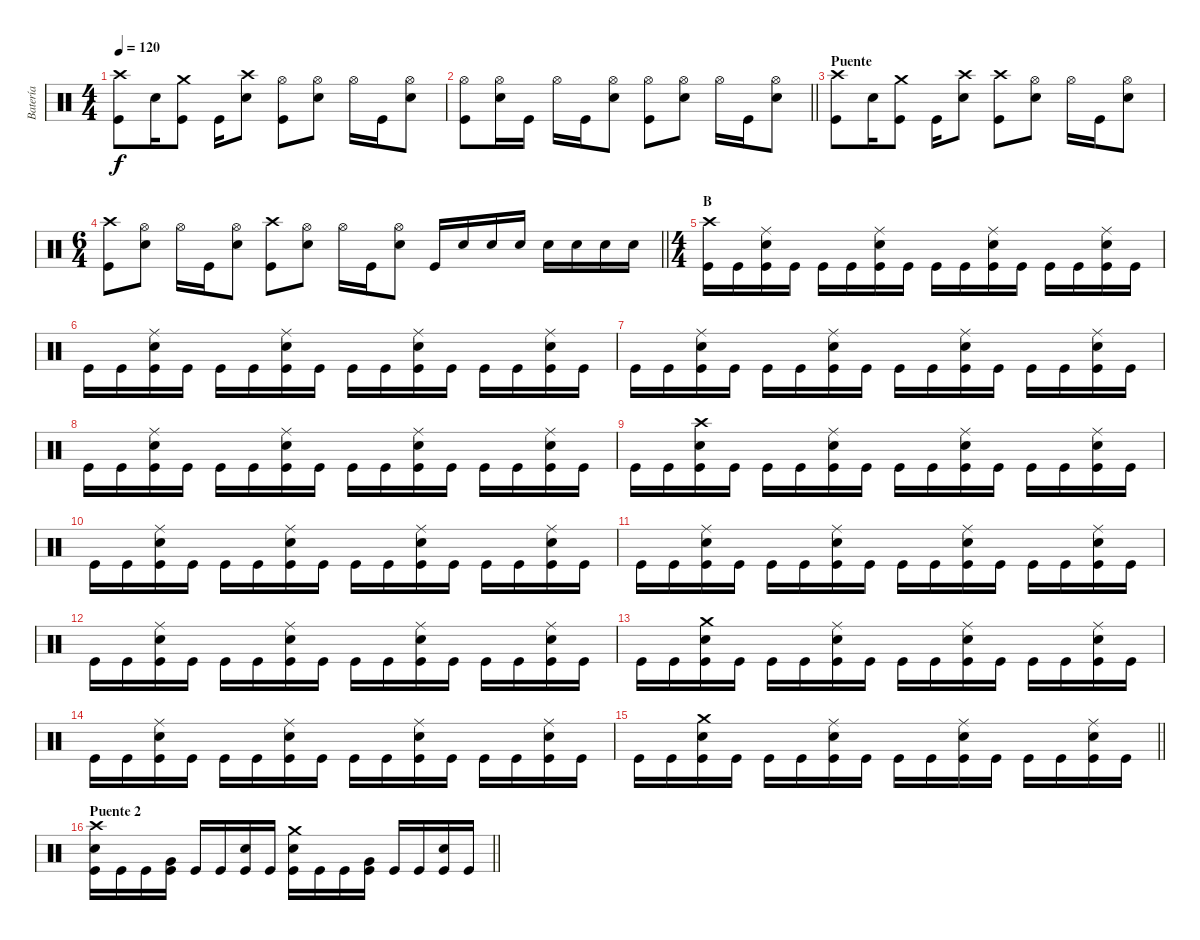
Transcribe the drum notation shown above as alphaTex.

\track ("Batería" "Batería") {instrument percussion}
\staff {score}
\articulation defaults
\ts (4 4)
\tempo 120
\clef neutral
\ks c
("Crash high (hit)" "Kick (hit)").8{dy f} "Snare (hit) 2".16 ("Crash medium (hit)" "Kick (hit)").8 "Kick (hit)".16 ("Crash high (hit)" "Snare (hit) 2").8 ("Hi-Hat (open)" "Kick (hit)").8 ("Hi-Hat (open)" "Snare (hit) 2").8 "Hi-Hat (open)".16 "Kick (hit)".16 ("Hi-Hat (open)" "Snare (hit) 2").8 |
\barLineRight lightlight
("Hi-Hat (open)" "Kick (hit)").8 ("Hi-Hat (open)" "Snare (hit) 2").16 "Kick (hit)".16 "Hi-Hat (open)".16 "Kick (hit)".16 ("Hi-Hat (open)" "Snare (hit) 2").8 ("Hi-Hat (open)" "Kick (hit)").8 ("Hi-Hat (open)" "Snare (hit) 2").8 "Hi-Hat (open)".16 "Kick (hit)".16 ("Hi-Hat (open)" "Snare (hit) 2").8 |
\section ("" "Puente")
("Crash high (hit)" "Kick (hit)").8 "Snare (hit) 2".16 ("Crash medium (hit)" "Kick (hit)").8 "Kick (hit)".16 ("Crash high (hit)" "Snare (hit) 2").8 ("Crash high (hit)" "Kick (hit)").8 ("Hi-Hat (open)" "Snare (hit) 2").8 "Hi-Hat (open)".16 "Kick (hit)".16 ("Hi-Hat (open)" "Snare (hit) 2").8 |
\ts (6 4)
\barLineRight lightlight
("Crash high (hit)" "Kick (hit)").8 ("Hi-Hat (open)" "Snare (hit) 2").8 "Hi-Hat (open)".16 "Kick (hit)".16 ("Hi-Hat (open)" "Snare (hit) 2").8 ("Crash high (hit)" "Kick (hit)").8 ("Hi-Hat (open)" "Snare (hit) 2").8 "Hi-Hat (open)".16 "Kick (hit)".16 ("Hi-Hat (open)" "Snare (hit) 2").8 "Kick (hit)".16 "Snare (hit) 2".16 "Snare (hit) 2".16 "Snare (hit) 2".16 "Snare (hit) 2".16 "Snare (hit) 2".16 "Snare (hit) 2".16 "Snare (hit) 2".16 |
\ts (4 4)
\section ("" "B")
("Crash high (hit)" "Kick (hit)").16 "Kick (hit)".16 ("Ride (middle)" "Snare (hit) 2" "Kick (hit)").16 "Kick (hit)".16 "Kick (hit)".16 "Kick (hit)".16 ("Ride (middle)" "Snare (hit) 2" "Kick (hit)").16 "Kick (hit)".16 "Kick (hit)".16 "Kick (hit)".16 ("Ride (middle)" "Snare (hit) 2" "Kick (hit)").16 "Kick (hit)".16 "Kick (hit)".16 "Kick (hit)".16 ("Ride (middle)" "Snare (hit) 2" "Kick (hit)").16 "Kick (hit)".16 |
"Kick (hit)".16 "Kick (hit)".16 ("Ride (middle)" "Snare (hit) 2" "Kick (hit)").16 "Kick (hit)".16 "Kick (hit)".16 "Kick (hit)".16 ("Ride (middle)" "Snare (hit) 2" "Kick (hit)").16 "Kick (hit)".16 "Kick (hit)".16 "Kick (hit)".16 ("Ride (middle)" "Snare (hit) 2" "Kick (hit)").16 "Kick (hit)".16 "Kick (hit)".16 "Kick (hit)".16 ("Ride (middle)" "Snare (hit) 2" "Kick (hit)").16 "Kick (hit)".16 |
"Kick (hit)".16 "Kick (hit)".16 ("Ride (middle)" "Snare (hit) 2" "Kick (hit)").16 "Kick (hit)".16 "Kick (hit)".16 "Kick (hit)".16 ("Ride (middle)" "Snare (hit) 2" "Kick (hit)").16 "Kick (hit)".16 "Kick (hit)".16 "Kick (hit)".16 ("Ride (middle)" "Snare (hit) 2" "Kick (hit)").16 "Kick (hit)".16 "Kick (hit)".16 "Kick (hit)".16 ("Ride (middle)" "Snare (hit) 2" "Kick (hit)").16 "Kick (hit)".16 |
"Kick (hit)".16 "Kick (hit)".16 ("Ride (middle)" "Snare (hit) 2" "Kick (hit)").16 "Kick (hit)".16 "Kick (hit)".16 "Kick (hit)".16 ("Ride (middle)" "Snare (hit) 2" "Kick (hit)").16 "Kick (hit)".16 "Kick (hit)".16 "Kick (hit)".16 ("Ride (middle)" "Snare (hit) 2" "Kick (hit)").16 "Kick (hit)".16 "Kick (hit)".16 "Kick (hit)".16 ("Ride (middle)" "Snare (hit) 2" "Kick (hit)").16 "Kick (hit)".16 |
"Kick (hit)".16 "Kick (hit)".16 ("Crash high (hit)" "Snare (hit) 2" "Kick (hit)").16 "Kick (hit)".16 "Kick (hit)".16 "Kick (hit)".16 ("Ride (middle)" "Snare (hit) 2" "Kick (hit)").16 "Kick (hit)".16 "Kick (hit)".16 "Kick (hit)".16 ("Ride (middle)" "Snare (hit) 2" "Kick (hit)").16 "Kick (hit)".16 "Kick (hit)".16 "Kick (hit)".16 ("Ride (middle)" "Snare (hit) 2" "Kick (hit)").16 "Kick (hit)".16 |
"Kick (hit)".16 "Kick (hit)".16 ("Ride (middle)" "Snare (hit) 2" "Kick (hit)").16 "Kick (hit)".16 "Kick (hit)".16 "Kick (hit)".16 ("Ride (middle)" "Snare (hit) 2" "Kick (hit)").16 "Kick (hit)".16 "Kick (hit)".16 "Kick (hit)".16 ("Ride (middle)" "Snare (hit) 2" "Kick (hit)").16 "Kick (hit)".16 "Kick (hit)".16 "Kick (hit)".16 ("Ride (middle)" "Snare (hit) 2" "Kick (hit)").16 "Kick (hit)".16 |
"Kick (hit)".16 "Kick (hit)".16 ("Ride (middle)" "Snare (hit) 2" "Kick (hit)").16 "Kick (hit)".16 "Kick (hit)".16 "Kick (hit)".16 ("Ride (middle)" "Snare (hit) 2" "Kick (hit)").16 "Kick (hit)".16 "Kick (hit)".16 "Kick (hit)".16 ("Ride (middle)" "Snare (hit) 2" "Kick (hit)").16 "Kick (hit)".16 "Kick (hit)".16 "Kick (hit)".16 ("Ride (middle)" "Snare (hit) 2" "Kick (hit)").16 "Kick (hit)".16 |
"Kick (hit)".16 "Kick (hit)".16 ("Ride (middle)" "Snare (hit) 2" "Kick (hit)").16 "Kick (hit)".16 "Kick (hit)".16 "Kick (hit)".16 ("Ride (middle)" "Snare (hit) 2" "Kick (hit)").16 "Kick (hit)".16 "Kick (hit)".16 "Kick (hit)".16 ("Ride (middle)" "Snare (hit) 2" "Kick (hit)").16 "Kick (hit)".16 "Kick (hit)".16 "Kick (hit)".16 ("Ride (middle)" "Snare (hit) 2" "Kick (hit)").16 "Kick (hit)".16 |
"Kick (hit)".16 "Kick (hit)".16 ("Crash medium (hit)" "Snare (hit) 2" "Kick (hit)").16 "Kick (hit)".16 "Kick (hit)".16 "Kick (hit)".16 ("Ride (middle)" "Snare (hit) 2" "Kick (hit)").16 "Kick (hit)".16 "Kick (hit)".16 "Kick (hit)".16 ("Ride (middle)" "Snare (hit) 2" "Kick (hit)").16 "Kick (hit)".16 "Kick (hit)".16 "Kick (hit)".16 ("Ride (middle)" "Snare (hit) 2" "Kick (hit)").16 "Kick (hit)".16 |
"Kick (hit)".16 "Kick (hit)".16 ("Ride (middle)" "Snare (hit) 2" "Kick (hit)").16 "Kick (hit)".16 "Kick (hit)".16 "Kick (hit)".16 ("Ride (middle)" "Snare (hit) 2" "Kick (hit)").16 "Kick (hit)".16 "Kick (hit)".16 "Kick (hit)".16 ("Ride (middle)" "Snare (hit) 2" "Kick (hit)").16 "Kick (hit)".16 "Kick (hit)".16 "Kick (hit)".16 ("Ride (middle)" "Snare (hit) 2" "Kick (hit)").16 "Kick (hit)".16 |
\barLineRight lightlight "Kick (hit)".16 "Kick (hit)".16
("Crash medium (hit)" "Snare (hit) 2" "Kick (hit)").16 "Kick (hit)".16 "Kick (hit)".16 "Kick (hit)".16 ("Ride (middle)" "Snare (hit) 2" "Kick (hit)").16 "Kick (hit)".16 "Kick (hit)".16 "Kick (hit)".16 ("Ride (middle)" "Snare (hit) 2" "Kick (hit)").16 "Kick (hit)".16 "Kick (hit)".16 "Kick (hit)".16 ("Ride (middle)" "Snare (hit) 2" "Kick (hit)").16 "Kick (hit)".16 |
\section ("" "Puente 2")
\barLineRight lightlight
("Crash high (hit)" "Snare (hit) 2" "Kick (hit)").16 "Kick (hit)".16 "Kick (hit)".16 ("Very Low Tom (hit)" "Kick (hit)").16 "Kick (hit)".16 "Kick (hit)".16 ("Snare (hit) 2" "Kick (hit)").16 "Kick (hit)".16 ("Crash medium (hit)" "Snare (hit) 2" "Kick (hit)").16 "Kick (hit)".16 "Kick (hit)".16 ("Very Low Tom (hit)" "Kick (hit)").16 "Kick (hit)".16 "Kick (hit)".16 ("Snare (hit) 2" "Kick (hit)").16 "Kick (hit)".16
